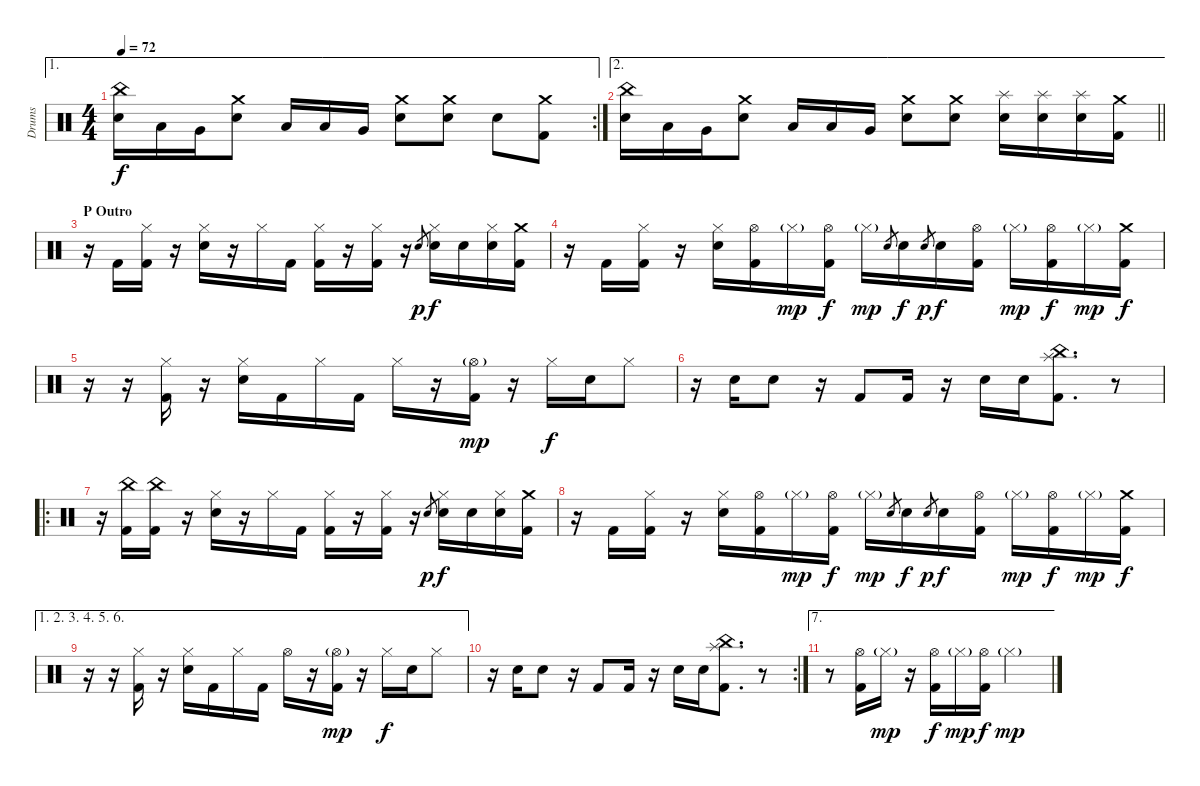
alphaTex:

\track ("Drums" "Drums") {instrument percussion}
\staff {score}
\articulation defaults
\ae 1
\rc 2
\ts (4 4)
\tempo 72
\clef neutral
\ks c
("China (hit)" "Electric Snare (hit)").16{dy f} "Low Tom (hit)".16 "Very Low Tom (hit)".16 ("Crash medium (hit)" "Electric Snare (hit)").8 "Low Tom (hit)".16 "Low Tom (hit)".16 "Very Low Tom (hit)".16 ("Crash medium (hit)" "Electric Snare (hit)").8 ("Crash medium (hit)" "Electric Snare (hit)").8 "Electric Snare (hit)".8 ("Crash medium (hit)" "Kick (hit) 2").8 |
\ae 2
\barLineRight lightlight
("China (hit)" "Electric Snare (hit)").16 "Low Tom (hit)".16 "Very Low Tom (hit)".16 ("Crash medium (hit)" "Electric Snare (hit)").8 "Low Tom (hit)".16 "Low Tom (hit)".16 "Very Low Tom (hit)".16 ("Crash medium (hit)" "Electric Snare (hit)").8 ("Crash medium (hit)" "Electric Snare (hit)").8 ("Splash (hit)" "Electric Snare (hit)").16 ("Splash (hit)" "Electric Snare (hit)").16 ("Splash (hit)" "Electric Snare (hit)").16 ("Crash medium (hit)" "Kick (hit) 2").16 |
\section ("" "P Outro")
r.16 "Kick (hit) 2".16 ("Hi-Hat (closed)" "Kick (hit) 2").16 r.16 ("Hi-Hat (closed)" "Electric Snare (hit)").16 r.16 "Hi-Hat (closed)".16 "Kick (hit) 2".16 ("Hi-Hat (closed)" "Kick (hit) 2").16 r.16 ("Hi-Hat (closed)" "Kick (hit) 2").16 r.16 "Electric Snare (hit)".8{gr dy p} ("Hi-Hat (closed)" "Electric Snare (hit)").16{dy f} "Electric Snare (hit)".16 ("Hi-Hat (closed)" "Electric Snare (hit)").16 ("Crash medium (hit)" "Kick (hit) 2").16 |
r.16 "Kick (hit) 2".16 ("Hi-Hat (closed)" "Kick (hit) 2").16 r.16 ("Hi-Hat (closed)" "Electric Snare (hit)").16 ("Hi-Hat (open)" "Kick (hit) 2").16 "Hi-Hat (closed)"{g}.16{dy mp} ("Hi-Hat (open)" "Kick (hit) 2").16{dy f} "Hi-Hat (closed)"{g}.16{dy mp} "Electric Snare (hit)".8{gr} "Electric Snare (hit)".16{dy f} "Electric Snare (hit)".8{gr dy p} "Electric Snare (hit)".16{dy f} ("Hi-Hat (open)" "Kick (hit) 2").16 "Hi-Hat (closed)"{g}.16{dy mp} ("Hi-Hat (open)" "Kick (hit) 2").16{dy f} "Hi-Hat (closed)"{g}.16{dy mp} ("Crash medium (hit)" "Kick (hit) 2").16{dy f} |
r.16 r.16 ("Hi-Hat (closed)" "Kick (hit) 2").16 r.16 ("Hi-Hat (closed)" "Electric Snare (hit)").16 "Kick (hit) 2".16 "Hi-Hat (closed)".16 "Kick (hit) 2".16 "Hi-Hat (closed)".16 r.16 ("Hi-Hat (open)"{g} "Kick (hit) 2").16{dy mp} r.16 "Hi-Hat (closed)".16{dy f} "Electric Snare (hit)".16 "Hi-Hat (closed)".8 |
r.16 "Electric Snare (hit)".16 "Electric Snare (hit)".8 r.16 "Kick (hit) 2".8 "Kick (hit) 2".16 r.16 "Electric Snare (hit)".16 "Electric Snare (hit)".16 ("China (hit)" "Splash (hit)" "Kick (hit) 2").8{d} r.8 |
\ro
r.16 ("China (hit)" "Kick (hit) 2").16 ("China (hit)" "Kick (hit) 2").16 r.16 ("Hi-Hat (closed)" "Electric Snare (hit)").16 r.16 "Hi-Hat (closed)".16 "Kick (hit) 2".16 ("Hi-Hat (closed)" "Kick (hit) 2").16 r.16 ("Hi-Hat (closed)" "Kick (hit) 2").16 r.16 "Electric Snare (hit)".8{gr dy p} ("Hi-Hat (closed)" "Electric Snare (hit)").16{dy f} "Electric Snare (hit)".16 ("Hi-Hat (closed)" "Electric Snare (hit)").16 ("Crash medium (hit)" "Kick (hit) 2").16 |
r.16 "Kick (hit) 2".16 ("Hi-Hat (closed)" "Kick (hit) 2").16 r.16 ("Hi-Hat (closed)" "Electric Snare (hit)").16 ("Hi-Hat (open)" "Kick (hit) 2").16 "Hi-Hat (closed)"{g}.16{dy mp} ("Hi-Hat (open)" "Kick (hit) 2").16{dy f} "Hi-Hat (closed)"{g}.16{dy mp} "Electric Snare (hit)".8{gr} "Electric Snare (hit)".16{dy f} "Electric Snare (hit)".8{gr dy p} "Electric Snare (hit)".16{dy f} ("Hi-Hat (open)" "Kick (hit) 2").16 "Hi-Hat (closed)"{g}.16{dy mp} ("Hi-Hat (open)" "Kick (hit) 2").16{dy f} "Hi-Hat (closed)"{g}.16{dy mp} ("Crash medium (hit)" "Kick (hit) 2").16{dy f} |
\ae (1 2 3 4 5 6)
r.16 r.16 ("Hi-Hat (closed)" "Kick (hit) 2").16 r.16 ("Hi-Hat (closed)" "Electric Snare (hit)").16 "Kick (hit) 2".16 "Hi-Hat (closed)".16 "Kick (hit) 2".16 "Hi-Hat (open)".16 r.16 ("Hi-Hat (open)"{g} "Kick (hit) 2").16{dy mp} r.16 "Hi-Hat (closed)".16{dy f} "Electric Snare (hit)".16 "Hi-Hat (closed)".8 |
\rc 2
r.16 "Electric Snare (hit)".16 "Electric Snare (hit)".8 r.16 "Kick (hit) 2".8 "Kick (hit) 2".16 r.16 "Electric Snare (hit)".16 "Electric Snare (hit)".16 ("China (hit)" "Splash (hit)" "Kick (hit) 2").8{d} r.8 |
\ae 7
r.8 ("Hi-Hat (open)" "Kick (hit) 2").16 "Hi-Hat (closed)"{g}.16{dy mp} r.16 ("Hi-Hat (open)" "Kick (hit) 2").16{dy f} "Hi-Hat (closed)"{g}.16{dy mp} ("Hi-Hat (open)" "Kick (hit) 2").16{dy f} "Hi-Hat (closed)"{g}.2{dy mp}
